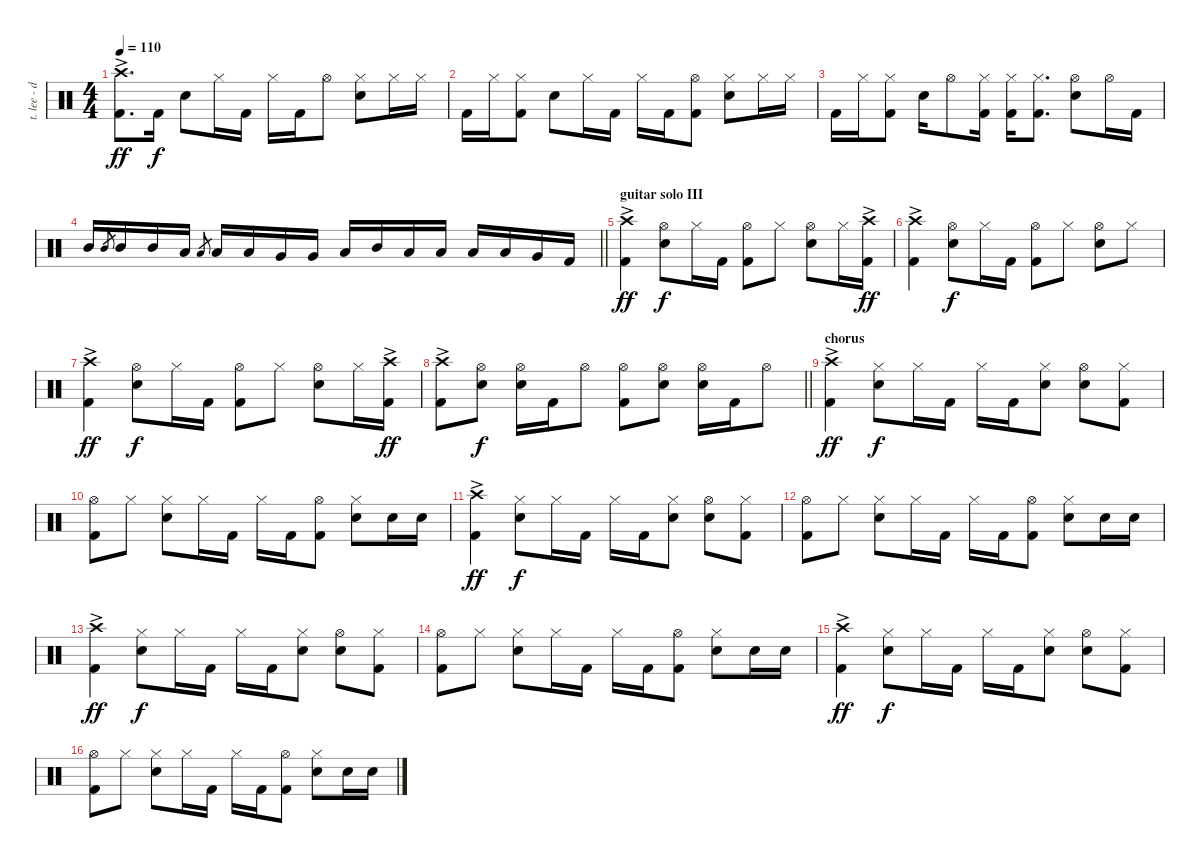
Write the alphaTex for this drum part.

\track ("t. lee - drums" "t. lee - d") {instrument percussion}
\staff {score}
\articulation defaults
\ts (4 4)
\tempo 110
\clef neutral
\ks c
("Crash high (hit)"{ac} "Kick (hit) 2"{ac}).8{d dy ff} "Kick (hit) 2".16{dy f} "Snare (hit) 2".8 "Hi-Hat (closed)".16 "Kick (hit) 2".16 "Hi-Hat (closed)".16 "Kick (hit) 2".16 "Hi-Hat (open)".8 ("Hi-Hat (closed)" "Snare (hit) 2").8 "Hi-Hat (closed)".16 "Hi-Hat (closed)".16 |
"Kick (hit) 2".16 "Hi-Hat (closed)".16 ("Hi-Hat (closed)" "Kick (hit) 2").8 "Snare (hit) 2".8 "Hi-Hat (closed)".16 "Kick (hit) 2".16 "Hi-Hat (closed)".16 "Kick (hit) 2".16 ("Hi-Hat (open)" "Kick (hit) 2").8 ("Hi-Hat (closed)" "Snare (hit) 2").8 "Hi-Hat (closed)".16 "Hi-Hat (closed)".16 |
"Kick (hit) 2".16 "Hi-Hat (closed)".16 ("Hi-Hat (closed)" "Kick (hit) 2").8 "Snare (hit) 2".16 "Hi-Hat (open)".8 ("Hi-Hat (closed)" "Kick (hit) 2").16 ("Hi-Hat (closed)" "Kick (hit) 2").16 ("Hi-Hat (closed)" "Kick (hit) 2").8{d} ("Hi-Hat (open)" "Snare (hit) 2").8 "Hi-Hat (open)".16 "Kick (hit) 2".16 |
\barLineRight lightlight "Mid Tom (hit)".16 "Mid Tom (hit)".8{gr} "Mid Tom (hit)".16 "Mid Tom (hit)".16 "Low Tom (hit)".16 "Low Tom (hit)".8{gr} "Low Tom (hit)".16 "Low Tom (hit)".16 "Very Low Tom (hit)".16 "Very Low Tom (hit)".16 "Low Tom (hit)".16 "Mid Tom (hit)".16 "Low Tom (hit)".16 "Low Tom (hit)".16 "Low Tom (hit)".16 "Low Tom (hit)".16 "Very Low Tom (hit)".16 "Kick (hit) 2".16
|
\section ("" "guitar solo III")
("Crash high (hit)"{ac} "Kick (hit) 2"{ac}).4{dy ff} ("Hi-Hat (open)" "Snare (hit) 2").8{dy f} "Hi-Hat (closed)".16 "Kick (hit) 2".16 ("Hi-Hat (open)" "Kick (hit) 2").8 "Hi-Hat (closed)".8 ("Hi-Hat (open)" "Snare (hit) 2").8 "Hi-Hat (closed)".16 ("Crash high (hit)"{ac} "Kick (hit) 2").16{dy ff} |
("Crash high (hit)"{ac} "Kick (hit) 2"{ac}).4 ("Hi-Hat (open)" "Snare (hit) 2").8{dy f} "Hi-Hat (closed)".16 "Kick (hit) 2".16 ("Hi-Hat (open)" "Kick (hit) 2").8 "Hi-Hat (closed)".8 ("Hi-Hat (open)" "Snare (hit) 2").8 "Hi-Hat (closed)".8 |
("Crash high (hit)"{ac} "Kick (hit) 2"{ac}).4{dy ff} ("Hi-Hat (open)" "Snare (hit) 2").8{dy f} "Hi-Hat (closed)".16 "Kick (hit) 2".16 ("Hi-Hat (open)" "Kick (hit) 2").8 "Hi-Hat (closed)".8 ("Hi-Hat (open)" "Snare (hit) 2").8 "Hi-Hat (closed)".16 ("Crash high (hit)"{ac} "Kick (hit) 2").16{dy ff} |
\barLineRight lightlight
("Crash high (hit)"{ac} "Kick (hit) 2"{ac}).8 ("Hi-Hat (open)" "Snare (hit) 2").8{dy f} ("Hi-Hat (open)" "Snare (hit) 2").16 "Kick (hit) 2".16 "Hi-Hat (open)".8 ("Hi-Hat (open)" "Kick (hit) 2").8 ("Hi-Hat (open)" "Snare (hit) 2").8 ("Hi-Hat (open)" "Snare (hit) 2").16 "Kick (hit) 2".16 "Hi-Hat (open)".8 |
\section ("" "chorus")
("Crash high (hit)"{ac} "Kick (hit) 2"{ac}).4{dy ff} ("Hi-Hat (closed)" "Snare (hit) 2").8{dy f} "Hi-Hat (closed)".16 "Kick (hit) 2".16 "Hi-Hat (closed)".16 "Kick (hit) 2".16 ("Hi-Hat (closed)" "Snare (hit) 2").8 ("Hi-Hat (open)" "Snare (hit) 2").8 ("Hi-Hat (closed)" "Kick (hit) 2").8 |
("Hi-Hat (open)" "Kick (hit) 2").8 "Hi-Hat (closed)".8 ("Hi-Hat (closed)" "Snare (hit) 2").8 "Hi-Hat (closed)".16 "Kick (hit) 2".16 "Hi-Hat (closed)".16 "Kick (hit) 2".16 ("Hi-Hat (open)" "Kick (hit) 2").8 ("Hi-Hat (closed)" "Snare (hit) 2").8 "Snare (hit) 2".16 "Snare (hit) 2".16 |
("Crash high (hit)"{ac} "Kick (hit) 2"{ac}).4{dy ff} ("Hi-Hat (closed)" "Snare (hit) 2").8{dy f} "Hi-Hat (closed)".16 "Kick (hit) 2".16 "Hi-Hat (closed)".16 "Kick (hit) 2".16 ("Hi-Hat (closed)" "Snare (hit) 2").8 ("Hi-Hat (open)" "Snare (hit) 2").8 ("Hi-Hat (closed)" "Kick (hit) 2").8 |
("Hi-Hat (open)" "Kick (hit) 2").8 "Hi-Hat (closed)".8 ("Hi-Hat (closed)" "Snare (hit) 2").8 "Hi-Hat (closed)".16 "Kick (hit) 2".16 "Hi-Hat (closed)".16 "Kick (hit) 2".16 ("Hi-Hat (open)" "Kick (hit) 2").8 ("Hi-Hat (closed)" "Snare (hit) 2").8 "Snare (hit) 2".16 "Snare (hit) 2".16 |
("Crash high (hit)"{ac} "Kick (hit) 2"{ac}).4{dy ff} ("Hi-Hat (closed)" "Snare (hit) 2").8{dy f} "Hi-Hat (closed)".16 "Kick (hit) 2".16 "Hi-Hat (closed)".16 "Kick (hit) 2".16 ("Hi-Hat (closed)" "Snare (hit) 2").8 ("Hi-Hat (open)" "Snare (hit) 2").8 ("Hi-Hat (closed)" "Kick (hit) 2").8 |
("Hi-Hat (open)" "Kick (hit) 2").8 "Hi-Hat (closed)".8 ("Hi-Hat (closed)" "Snare (hit) 2").8 "Hi-Hat (closed)".16 "Kick (hit) 2".16 "Hi-Hat (closed)".16 "Kick (hit) 2".16 ("Hi-Hat (open)" "Kick (hit) 2").8 ("Hi-Hat (closed)" "Snare (hit) 2").8 "Snare (hit) 2".16 "Snare (hit) 2".16 |
("Crash high (hit)"{ac} "Kick (hit) 2"{ac}).4{dy ff} ("Hi-Hat (closed)" "Snare (hit) 2").8{dy f} "Hi-Hat (closed)".16 "Kick (hit) 2".16 "Hi-Hat (closed)".16 "Kick (hit) 2".16 ("Hi-Hat (closed)" "Snare (hit) 2").8 ("Hi-Hat (open)" "Snare (hit) 2").8 ("Hi-Hat (closed)" "Kick (hit) 2").8 |
("Hi-Hat (open)" "Kick (hit) 2").8 "Hi-Hat (closed)".8 ("Hi-Hat (closed)" "Snare (hit) 2").8 "Hi-Hat (closed)".16 "Kick (hit) 2".16 "Hi-Hat (closed)".16 "Kick (hit) 2".16 ("Hi-Hat (open)" "Kick (hit) 2").8 ("Hi-Hat (closed)" "Snare (hit) 2").8 "Snare (hit) 2".16 "Snare (hit) 2".16
